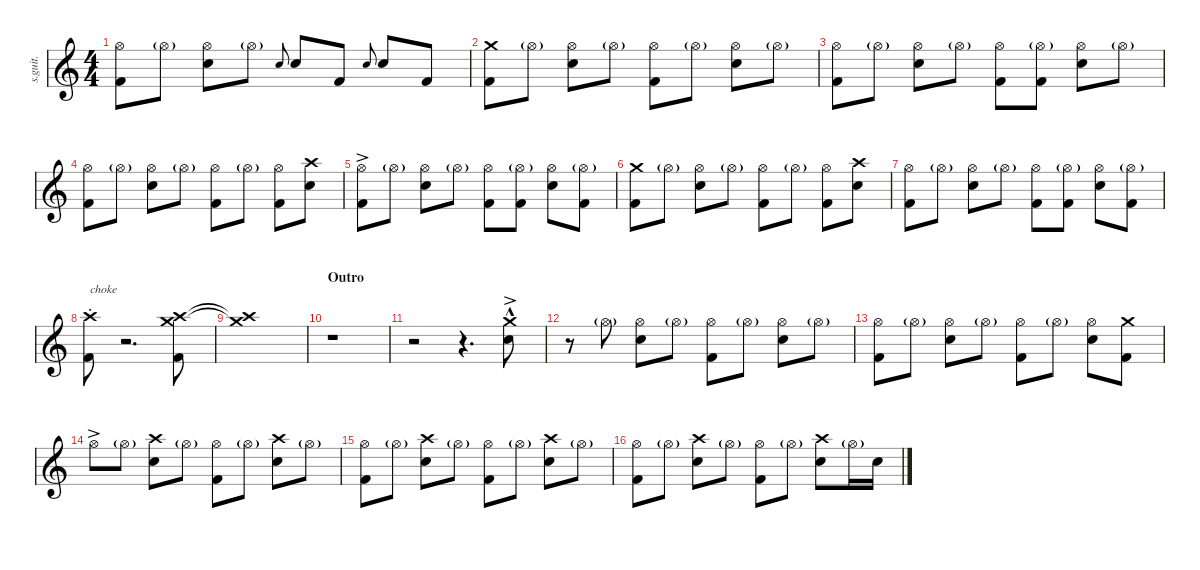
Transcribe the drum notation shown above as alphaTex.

\defaultSystemsLayout 4
\hideDynamics
\bracketExtendMode nobrackets
\track ("Lars Ulrich" "s.guit.") {instrument percussion}
\staff {score}
\articulation defaults
\ts (4 4)
\tempo (124 hide)
\clef g2
\ks c
("Hi-Hat (open)" "Kick (hit) 2").8{lyrics (0 "") lyrics (1 "") lyrics (2 "") lyrics (3 "") lyrics (4 "") dy f} "Hi-Hat (open)"{g}.8{lyrics (0 "") lyrics (1 "") lyrics (2 "") lyrics (3 "") lyrics (4 "") dy p} ("Hi-Hat (open)" "Snare (hit) 2").8{lyrics (0 "") lyrics (1 "") lyrics (2 "") lyrics (3 "") lyrics (4 "") dy f} "Hi-Hat (open)"{g}.8{lyrics (0 "") lyrics (1 "") lyrics (2 "") lyrics (3 "") lyrics (4 "") dy p} "Snare (hit) 2".8{lyrics (0 "") lyrics (1 "") lyrics (2 "") lyrics (3 "") lyrics (4 "") gr onbeat dy f} "Snare (hit) 2".8{lyrics (0 "") lyrics (1 "") lyrics (2 "") lyrics (3 "") lyrics (4 "")} "Kick (hit) 2".8{lyrics (0 "") lyrics (1 "") lyrics (2 "") lyrics (3 "") lyrics (4 "")} "Snare (hit) 2".8{lyrics (0 "") lyrics (1 "") lyrics (2 "") lyrics (3 "") lyrics (4 "") gr onbeat} "Snare (hit) 2".8{lyrics (0 "") lyrics (1 "") lyrics (2 "") lyrics (3 "") lyrics (4 "")} "Kick (hit) 2".8{lyrics (0 "") lyrics (1 "") lyrics (2 "") lyrics (3 "") lyrics (4 "")} |
("Crash medium (hit)" "Kick (hit) 2").8{lyrics (0 "") lyrics (1 "") lyrics (2 "") lyrics (3 "") lyrics (4 "")} "Hi-Hat (open)"{g}.8{lyrics (0 "") lyrics (1 "") lyrics (2 "") lyrics (3 "") lyrics (4 "") dy p} ("Hi-Hat (open)" "Snare (hit) 2").8{lyrics (0 "") lyrics (1 "") lyrics (2 "") lyrics (3 "") lyrics (4 "") dy f} "Hi-Hat (open)"{g}.8{lyrics (0 "") lyrics (1 "") lyrics (2 "") lyrics (3 "") lyrics (4 "") dy p} ("Hi-Hat (open)" "Kick (hit) 2").8{lyrics (0 "") lyrics (1 "") lyrics (2 "") lyrics (3 "") lyrics (4 "") dy f} "Hi-Hat (open)"{g}.8{lyrics (0 "") lyrics (1 "") lyrics (2 "") lyrics (3 "") lyrics (4 "") dy p} ("Hi-Hat (open)" "Snare (hit) 2").8{lyrics (0 "") lyrics (1 "") lyrics (2 "") lyrics (3 "") lyrics (4 "") dy f} "Hi-Hat (open)"{g}.8{lyrics (0 "") lyrics (1 "") lyrics (2 "") lyrics (3 "") lyrics (4 "") dy p} |
("Hi-Hat (open)" "Kick (hit) 2").8{lyrics (0 "") lyrics (1 "") lyrics (2 "") lyrics (3 "") lyrics (4 "") dy f} "Hi-Hat (open)"{g}.8{lyrics (0 "") lyrics (1 "") lyrics (2 "") lyrics (3 "") lyrics (4 "") dy p} ("Hi-Hat (open)" "Snare (hit) 2").8{lyrics (0 "") lyrics (1 "") lyrics (2 "") lyrics (3 "") lyrics (4 "") dy f} "Hi-Hat (open)"{g}.8{lyrics (0 "") lyrics (1 "") lyrics (2 "") lyrics (3 "") lyrics (4 "") dy p} ("Hi-Hat (open)" "Kick (hit) 2").8{lyrics (0 "") lyrics (1 "") lyrics (2 "") lyrics (3 "") lyrics (4 "") dy f} ("Hi-Hat (open)"{g} "Kick (hit) 2").8{lyrics (0 "") lyrics (1 "") lyrics (2 "") lyrics (3 "") lyrics (4 "")} ("Hi-Hat (open)" "Snare (hit) 2").8{lyrics (0 "") lyrics (1 "") lyrics (2 "") lyrics (3 "") lyrics (4 "")} "Hi-Hat (open)"{g}.8{lyrics (0 "") lyrics (1 "") lyrics (2 "") lyrics (3 "") lyrics (4 "") dy p} |
("Hi-Hat (open)" "Kick (hit) 2").8{lyrics (0 "") lyrics (1 "") lyrics (2 "") lyrics (3 "") lyrics (4 "") dy f} "Hi-Hat (open)"{g}.8{lyrics (0 "") lyrics (1 "") lyrics (2 "") lyrics (3 "") lyrics (4 "") dy p} ("Hi-Hat (open)" "Snare (hit) 2").8{lyrics (0 "") lyrics (1 "") lyrics (2 "") lyrics (3 "") lyrics (4 "") dy f} "Hi-Hat (open)"{g}.8{lyrics (0 "") lyrics (1 "") lyrics (2 "") lyrics (3 "") lyrics (4 "") dy p} ("Hi-Hat (open)" "Kick (hit) 2").8{lyrics (0 "") lyrics (1 "") lyrics (2 "") lyrics (3 "") lyrics (4 "") dy f} "Hi-Hat (open)"{g}.8{lyrics (0 "") lyrics (1 "") lyrics (2 "") lyrics (3 "") lyrics (4 "") dy p} ("Hi-Hat (open)" "Kick (hit) 2").8{lyrics (0 "") lyrics (1 "") lyrics (2 "") lyrics (3 "") lyrics (4 "") dy f} ("Crash high (hit)" "Snare (hit) 2").8{lyrics (0 "") lyrics (1 "") lyrics (2 "") lyrics (3 "") lyrics (4 "")} |
("Hi-Hat (open)"{ac} "Kick (hit) 2").8{lyrics (0 "") lyrics (1 "") lyrics (2 "") lyrics (3 "") lyrics (4 "")} "Hi-Hat (open)"{g}.8{lyrics (0 "") lyrics (1 "") lyrics (2 "") lyrics (3 "") lyrics (4 "") dy p} ("Hi-Hat (open)" "Snare (hit) 2").8{lyrics (0 "") lyrics (1 "") lyrics (2 "") lyrics (3 "") lyrics (4 "") dy f} "Hi-Hat (open)"{g}.8{lyrics (0 "") lyrics (1 "") lyrics (2 "") lyrics (3 "") lyrics (4 "") dy p} ("Hi-Hat (open)" "Kick (hit) 2").8{lyrics (0 "") lyrics (1 "") lyrics (2 "") lyrics (3 "") lyrics (4 "") dy f} ("Hi-Hat (open)"{g} "Kick (hit) 2").8{lyrics (0 "") lyrics (1 "") lyrics (2 "") lyrics (3 "") lyrics (4 "")} ("Hi-Hat (open)" "Snare (hit) 2").8{lyrics (0 "") lyrics (1 "") lyrics (2 "") lyrics (3 "") lyrics (4 "")} ("Hi-Hat (open)"{g} "Kick (hit) 2").8{lyrics (0 "") lyrics (1 "") lyrics (2 "") lyrics (3 "") lyrics (4 "")} |
("Crash medium (hit)" "Kick (hit) 2").8{lyrics (0 "") lyrics (1 "") lyrics (2 "") lyrics (3 "") lyrics (4 "")} "Hi-Hat (open)"{g}.8{lyrics (0 "") lyrics (1 "") lyrics (2 "") lyrics (3 "") lyrics (4 "") dy p} ("Hi-Hat (open)" "Snare (hit) 2").8{lyrics (0 "") lyrics (1 "") lyrics (2 "") lyrics (3 "") lyrics (4 "") dy f} "Hi-Hat (open)"{g}.8{lyrics (0 "") lyrics (1 "") lyrics (2 "") lyrics (3 "") lyrics (4 "") dy p} ("Hi-Hat (open)" "Kick (hit) 2").8{lyrics (0 "") lyrics (1 "") lyrics (2 "") lyrics (3 "") lyrics (4 "") dy f} "Hi-Hat (open)"{g}.8{lyrics (0 "") lyrics (1 "") lyrics (2 "") lyrics (3 "") lyrics (4 "") dy p} ("Hi-Hat (open)" "Kick (hit) 2").8{lyrics (0 "") lyrics (1 "") lyrics (2 "") lyrics (3 "") lyrics (4 "") dy f} ("Crash high (hit)" "Snare (hit) 2").8{lyrics (0 "") lyrics (1 "") lyrics (2 "") lyrics (3 "") lyrics (4 "")} |
("Hi-Hat (open)" "Kick (hit) 2").8{lyrics (0 "") lyrics (1 "") lyrics (2 "") lyrics (3 "") lyrics (4 "")} "Hi-Hat (open)"{g}.8{lyrics (0 "") lyrics (1 "") lyrics (2 "") lyrics (3 "") lyrics (4 "") dy p} ("Hi-Hat (open)" "Snare (hit) 2").8{lyrics (0 "") lyrics (1 "") lyrics (2 "") lyrics (3 "") lyrics (4 "") dy f} "Hi-Hat (open)"{g}.8{lyrics (0 "") lyrics (1 "") lyrics (2 "") lyrics (3 "") lyrics (4 "") dy p} ("Hi-Hat (open)" "Kick (hit) 2").8{lyrics (0 "") lyrics (1 "") lyrics (2 "") lyrics (3 "") lyrics (4 "") dy f} ("Hi-Hat (open)"{g} "Kick (hit) 2").8{lyrics (0 "") lyrics (1 "") lyrics (2 "") lyrics (3 "") lyrics (4 "")} ("Hi-Hat (open)" "Snare (hit) 2").8{lyrics (0 "") lyrics (1 "") lyrics (2 "") lyrics (3 "") lyrics (4 "")} ("Hi-Hat (open)"{g} "Kick (hit) 2").8{lyrics (0 "") lyrics (1 "") lyrics (2 "") lyrics (3 "") lyrics (4 "")} |
("Crash high (hit)"{st} "Kick (hit) 2").8{txt "choke" lyrics (0 "") lyrics (1 "") lyrics (2 "") lyrics (3 "") lyrics (4 "")} r.2{d} ("Crash high (hit)" "Crash medium (hit)" "Kick (hit) 2").8{lyrics (0 "") lyrics (1 "") lyrics (2 "") lyrics (3 "") lyrics (4 "")} |
("Crash high (hit)"{t} "Crash medium (hit)"{t}).1{lyrics (0 "") lyrics (1 "") lyrics (2 "") lyrics (3 "") lyrics (4 "")} |
\section ("" "Outro")
r.1 |
r.2 r.4{d} ("Crash medium (hit)"{hac} "Snare (hit) 2"{ac}).8{lyrics (0 "") lyrics (1 "") lyrics (2 "") lyrics (3 "") lyrics (4 "")} |
r.8 "Hi-Hat (open)"{g}.8{lyrics (0 "") lyrics (1 "") lyrics (2 "") lyrics (3 "") lyrics (4 "") dy p} ("Hi-Hat (open)" "Snare (hit) 2").8{lyrics (0 "") lyrics (1 "") lyrics (2 "") lyrics (3 "") lyrics (4 "") dy f} "Hi-Hat (open)"{g}.8{lyrics (0 "") lyrics (1 "") lyrics (2 "") lyrics (3 "") lyrics (4 "") dy p} ("Hi-Hat (open)" "Kick (hit) 2").8{lyrics (0 "") lyrics (1 "") lyrics (2 "") lyrics (3 "") lyrics (4 "") dy f} "Hi-Hat (open)"{g}.8{lyrics (0 "") lyrics (1 "") lyrics (2 "") lyrics (3 "") lyrics (4 "") dy p} ("Hi-Hat (open)" "Snare (hit) 2").8{lyrics (0 "") lyrics (1 "") lyrics (2 "") lyrics (3 "") lyrics (4 "") dy f} "Hi-Hat (open)"{g}.8{lyrics (0 "") lyrics (1 "") lyrics (2 "") lyrics (3 "") lyrics (4 "") dy p} |
("Hi-Hat (open)" "Kick (hit) 2").8{lyrics (0 "") lyrics (1 "") lyrics (2 "") lyrics (3 "") lyrics (4 "") dy f} "Hi-Hat (open)"{g}.8{lyrics (0 "") lyrics (1 "") lyrics (2 "") lyrics (3 "") lyrics (4 "") dy p} ("Hi-Hat (open)" "Snare (hit) 2").8{lyrics (0 "") lyrics (1 "") lyrics (2 "") lyrics (3 "") lyrics (4 "") dy f} "Hi-Hat (open)"{g}.8{lyrics (0 "") lyrics (1 "") lyrics (2 "") lyrics (3 "") lyrics (4 "") dy p} ("Hi-Hat (open)" "Kick (hit) 2").8{lyrics (0 "") lyrics (1 "") lyrics (2 "") lyrics (3 "") lyrics (4 "") dy f} "Hi-Hat (open)"{g}.8{lyrics (0 "") lyrics (1 "") lyrics (2 "") lyrics (3 "") lyrics (4 "") dy p} ("Hi-Hat (open)" "Snare (hit) 2").8{lyrics (0 "") lyrics (1 "") lyrics (2 "") lyrics (3 "") lyrics (4 "") dy f} ("Crash medium (hit)" "Kick (hit) 2").8{lyrics (0 "") lyrics (1 "") lyrics (2 "") lyrics (3 "") lyrics (4 "")} |
"Hi-Hat (open)"{ac}.8{lyrics (0 "") lyrics (1 "") lyrics (2 "") lyrics (3 "") lyrics (4 "") dy p} "Hi-Hat (open)"{g}.8{lyrics (0 "") lyrics (1 "") lyrics (2 "") lyrics (3 "") lyrics (4 "") dy mp} ("Crash high (hit)" "Snare (hit) 2").8{lyrics (0 "") lyrics (1 "") lyrics (2 "") lyrics (3 "") lyrics (4 "") dy f} "Hi-Hat (open)"{g}.8{lyrics (0 "") lyrics (1 "") lyrics (2 "") lyrics (3 "") lyrics (4 "") dy p} ("Hi-Hat (open)" "Kick (hit) 2").8{lyrics (0 "") lyrics (1 "") lyrics (2 "") lyrics (3 "") lyrics (4 "") dy f} "Hi-Hat (open)"{g}.8{lyrics (0 "") lyrics (1 "") lyrics (2 "") lyrics (3 "") lyrics (4 "") dy p} ("Crash high (hit)" "Snare (hit) 2").8{lyrics (0 "") lyrics (1 "") lyrics (2 "") lyrics (3 "") lyrics (4 "") dy f} "Hi-Hat (open)"{g}.8{lyrics (0 "") lyrics (1 "") lyrics (2 "") lyrics (3 "") lyrics (4 "") dy p} |
("Hi-Hat (open)" "Kick (hit) 2").8{lyrics (0 "") lyrics (1 "") lyrics (2 "") lyrics (3 "") lyrics (4 "") dy f} "Hi-Hat (open)"{g}.8{lyrics (0 "") lyrics (1 "") lyrics (2 "") lyrics (3 "") lyrics (4 "") dy p} ("Crash high (hit)" "Snare (hit) 2").8{lyrics (0 "") lyrics (1 "") lyrics (2 "") lyrics (3 "") lyrics (4 "") dy f} "Hi-Hat (open)"{g}.8{lyrics (0 "") lyrics (1 "") lyrics (2 "") lyrics (3 "") lyrics (4 "") dy p} ("Hi-Hat (open)" "Kick (hit) 2").8{lyrics (0 "") lyrics (1 "") lyrics (2 "") lyrics (3 "") lyrics (4 "") dy f} "Hi-Hat (open)"{g}.8{lyrics (0 "") lyrics (1 "") lyrics (2 "") lyrics (3 "") lyrics (4 "") dy p} ("Crash high (hit)" "Snare (hit) 2").8{lyrics (0 "") lyrics (1 "") lyrics (2 "") lyrics (3 "") lyrics (4 "") dy f} "Hi-Hat (open)"{g}.8{lyrics (0 "") lyrics (1 "") lyrics (2 "") lyrics (3 "") lyrics (4 "") dy p} |
("Hi-Hat (open)" "Kick (hit) 2").8{lyrics (0 "") lyrics (1 "") lyrics (2 "") lyrics (3 "") lyrics (4 "") dy f} "Hi-Hat (open)"{g}.8{lyrics (0 "") lyrics (1 "") lyrics (2 "") lyrics (3 "") lyrics (4 "") dy p} ("Crash high (hit)" "Snare (hit) 2").8{lyrics (0 "") lyrics (1 "") lyrics (2 "") lyrics (3 "") lyrics (4 "") dy f} "Hi-Hat (open)"{g}.8{lyrics (0 "") lyrics (1 "") lyrics (2 "") lyrics (3 "") lyrics (4 "") dy p} ("Hi-Hat (open)" "Kick (hit) 2").8{lyrics (0 "") lyrics (1 "") lyrics (2 "") lyrics (3 "") lyrics (4 "") dy f} "Hi-Hat (open)"{g}.8{lyrics (0 "") lyrics (1 "") lyrics (2 "") lyrics (3 "") lyrics (4 "") dy p} ("Crash high (hit)" "Snare (hit) 2").8{lyrics (0 "") lyrics (1 "") lyrics (2 "") lyrics (3 "") lyrics (4 "") dy f} "Hi-Hat (open)"{g}.16{lyrics (0 "") lyrics (1 "") lyrics (2 "") lyrics (3 "") lyrics (4 "") dy p} "Snare (hit) 2".16{lyrics (0 "") lyrics (1 "") lyrics (2 "") lyrics (3 "") lyrics (4 "") dy f}
